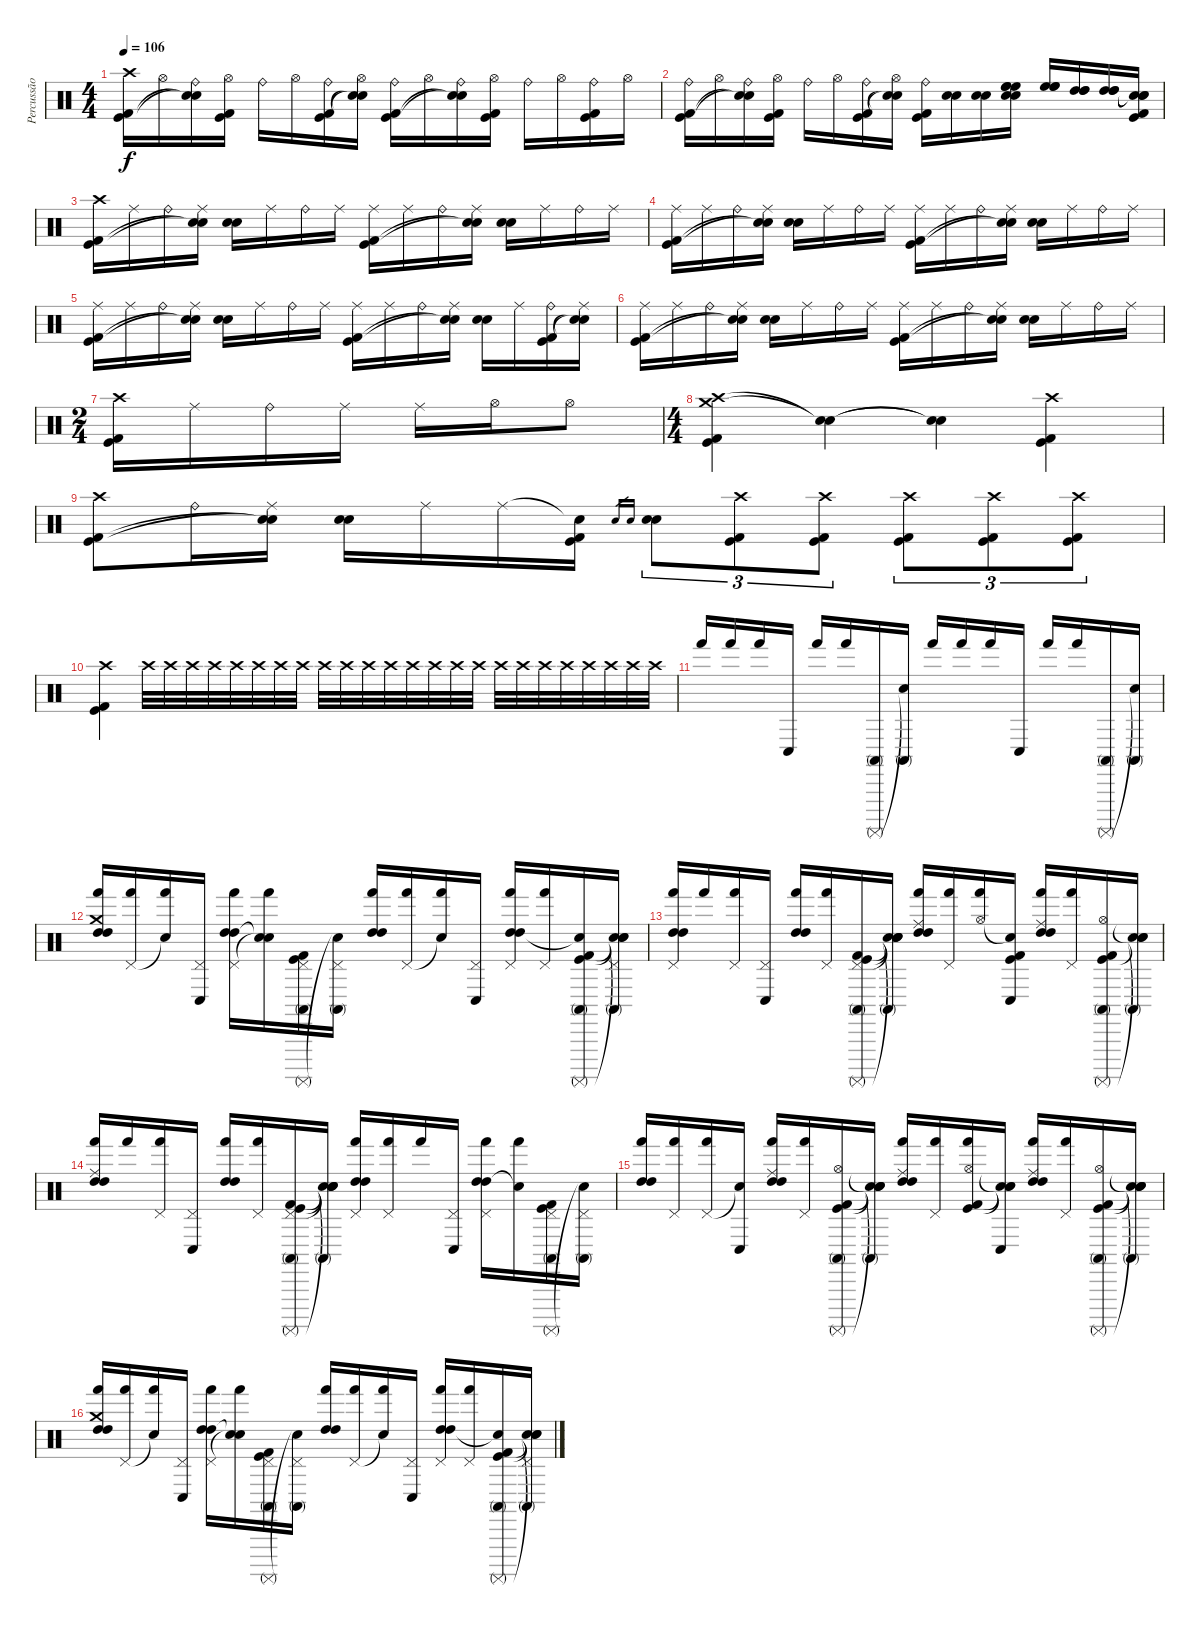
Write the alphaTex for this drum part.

\track ("Percussão" "Percussão") {instrument percussion}
\staff {score}
\articulation defaults
\ts (4 4)
\tempo 106
\clef neutral
\ks c
("Crash high (hit)" "Kick (hit)" "Kick (hit) 2").16{dy f} "Hi-Hat (open)".16 ("Ride (bell)" "Snare (hit)"{t} "Snare (hit)"{t}).16 ("Hi-Hat (open)" "Kick (hit)" "Kick (hit) 2").16 "Ride (bell)".16 "Hi-Hat (open)".16 ("Ride (bell)" "Kick (hit)" "Kick (hit) 2").16 ("Hi-Hat (open)" "Snare (hit)"{t} "Snare (hit)"{t}).16 ("Ride (bell)" "Kick (hit)" "Kick (hit) 2").16 "Hi-Hat (open)".16 ("Ride (bell)" "Snare (hit)"{t} "Snare (hit)"{t}).16 ("Hi-Hat (open)" "Kick (hit)" "Kick (hit) 2").16 "Ride (bell)".16 "Hi-Hat (open)".16 ("Ride (bell)" "Kick (hit) 2" "Kick (hit)").16 "Hi-Hat (open)".16 |
("Ride (bell)" "Kick (hit)" "Kick (hit) 2").16 "Hi-Hat (open)".16 ("Ride (bell)" "Snare (hit)"{t} "Snare (hit)"{t}).16 ("Hi-Hat (open)" "Kick (hit) 2" "Kick (hit)").16 "Ride (bell)".16 "Hi-Hat (open)".16 ("Ride (bell)" "Kick (hit)" "Kick (hit) 2").16 ("Hi-Hat (open)" "Snare (hit)"{t} "Snare (hit)"{t}).16 ("Ride (bell)" "Kick (hit)" "Kick (hit) 2").16 ("Electric Snare (hit)" "Snare (hit) 2").16 ("Electric Snare (hit)" "Snare (hit) 2").16 ("High Floor Tom (hit)" "High Floor Tom (hit)" "High Floor Tom (hit)" "Snare (hit)" "Snare (hit)").16 ("High Floor Tom (hit)" "High Floor Tom (hit)" "High Floor Tom (hit)").16 ("High Tom (hit)" "High Tom (hit)" "High Tom (hit)").16 ("High Tom (hit)" "High Tom (hit)" "High Tom (hit)").16 ("Snare (hit)"{t} "Snare (hit)"{t} "Snare (hit)"{t} "Kick (hit)" "Kick (hit) 2").16 |
("Crash high (hit)" "Kick (hit)" "Kick (hit) 2").16 "Ride (middle)".16 "Ride (bell)".16 ("Ride (middle)" "Snare (hit)"{t} "Snare (hit)"{t}).16 ("Electric Snare (hit)" "Snare (hit) 2").16 "Ride (middle)".16 "Ride (bell)".16 "Ride (middle)".16 ("Ride (middle)" "Kick (hit)" "Kick (hit) 2").16 "Ride (middle)".16 "Ride (bell)".16 ("Ride (middle)" "Snare (hit)"{t} "Snare (hit)"{t}).16 ("Electric Snare (hit)" "Snare (hit) 2").16 "Ride (middle)".16 "Ride (bell)".16 "Ride (middle)".16 |
("Ride (middle)" "Kick (hit)" "Kick (hit) 2").16 "Ride (middle)".16 "Ride (bell)".16 ("Ride (middle)" "Snare (hit)"{t} "Snare (hit)"{t}).16 ("Electric Snare (hit)" "Snare (hit) 2").16 "Ride (middle)".16 "Ride (bell)".16 "Ride (middle)".16 ("Ride (middle)" "Kick (hit)" "Kick (hit) 2").16 "Ride (middle)".16 "Ride (bell)".16 ("Ride (middle)" "Snare (hit)"{t} "Snare (hit)"{t}).16 ("Electric Snare (hit)" "Snare (hit) 2").16 "Ride (middle)".16 "Ride (bell)".16 "Ride (middle)".16 |
("Ride (middle)" "Kick (hit)" "Kick (hit) 2").16 "Ride (middle)".16 "Ride (bell)".16 ("Ride (middle)" "Snare (hit)"{t} "Snare (hit)"{t}).16 ("Electric Snare (hit)" "Snare (hit) 2").16 "Ride (middle)".16 "Ride (bell)".16 "Ride (middle)".16 ("Ride (middle)" "Kick (hit)" "Kick (hit) 2").16 "Ride (middle)".16 "Ride (bell)".16 ("Ride (middle)" "Snare (hit)"{t} "Snare (hit)"{t}).16 ("Electric Snare (hit)" "Snare (hit) 2").16 "Ride (middle)".16 ("Ride (bell)" "Kick (hit)" "Kick (hit) 2").16 ("Ride (middle)" "Snare (hit)"{t} "Snare (hit)"{t}).16 |
("Ride (middle)" "Kick (hit)" "Kick (hit) 2").16 "Ride (middle)".16 "Ride (bell)".16 ("Ride (middle)" "Snare (hit)"{t} "Snare (hit)"{t}).16 ("Electric Snare (hit)" "Snare (hit) 2").16 "Ride (middle)".16 "Ride (bell)".16 "Ride (middle)".16 ("Ride (middle)" "Kick (hit)" "Kick (hit) 2").16 "Ride (middle)".16 "Ride (bell)".16 ("Ride (middle)" "Snare (hit)"{t} "Snare (hit)"{t}).16 ("Electric Snare (hit)" "Snare (hit) 2").16 "Ride (middle)".16 "Ride (bell)".16 "Ride (middle)".16 |
\ts (2 4)
("Crash high (hit)" "Kick (hit)" "Kick (hit) 2").16 "Ride (middle)".16 "Ride (bell)".16 "Ride (middle)".16 "Ride (middle)".16 "Hi-Hat (open)".16 "Hi-Hat (open)".8 |
\ts (4 4)
("Crash high (hit)" "Crash medium (hit)" "Kick (hit)" "Kick (hit) 2").4 ("Snare (hit)"{t} "Snare (hit)"{t}).4 ("Snare (hit)"{t} "Snare (hit)"{t}).4 ("Crash high (hit)" "Kick (hit)" "Kick (hit) 2").4 |
("Crash high (hit)" "Kick (hit)" "Kick (hit) 2").8 "Ride (bell)".16 ("Ride (middle)" "Snare (hit)"{t} "Snare (hit)"{t}).16 ("Electric Snare (hit)" "Snare (hit) 2").16 "Ride (middle)".16 "Ride (middle)".16 ("Snare (hit)"{t} "Kick (hit)" "Kick (hit) 2").16 "Electric Snare (hit)".16{gr} "Snare (hit) 2".16{gr} ("Electric Snare (hit)" "Snare (hit) 2").8{tu (3 2)} ("Crash high (hit)" "Kick (hit)" "Kick (hit) 2").8{tu (3 2)} ("Crash high (hit)" "Kick (hit)" "Kick (hit) 2").8{tu (3 2)} ("Crash high (hit)" "Kick (hit)" "Kick (hit) 2").8{tu (3 2)} ("Crash high (hit)" "Kick (hit)" "Kick (hit) 2").8{tu (3 2)} ("Crash high (hit)" "Kick (hit)" "Kick (hit) 2").8{tu (3 2)} |
("Crash high (hit)" "Kick (hit)" "Kick (hit) 2").4 "Crash high (hit)".32 "Crash high (hit)".32 "Crash high (hit)".32 "Crash high (hit)".32 "Crash high (hit)".32 "Crash high (hit)".32 "Crash high (hit)".32 "Crash high (hit)".32 "Crash high (hit)".32 "Crash high (hit)".32 "Crash high (hit)".32 "Crash high (hit)".32 "Crash high (hit)".32 "Crash high (hit)".32 "Crash high (hit)".32 "Crash high (hit)".32 "Crash high (hit)".32 "Crash high (hit)".32 "Crash high (hit)".32 "Crash high (hit)".32 "Crash high (hit)".32 "Crash high (hit)".32 "Crash high (hit)".32 "Crash high (hit)".32 |
"Hand (hit)".16 "Hand (hit)".16 "Hand (hit)".16 "Conga low (hit)".16 "Hand (hit)".16 "Hand (hit)".16 ("Conga high (mute)" "Surdo (mute)").16 ("Conga high (mute)" "Snare (hit)"{t}).16 "Hand (hit)".16 "Hand (hit)".16 "Hand (hit)".16 "Conga low (hit)".16 "Hand (hit)".16 "Hand (hit)".16 ("Conga high (mute)" "Surdo (mute)").16 ("Conga high (mute)" "Snare (hit)"{t}).16 |
("Hand (hit)" "Crash medium (hit)" "High Tom (hit)" "High Tom (hit)").16 ("Hand (hit)" "Pedal Hi-Hat (hit)").16 ("Hand (hit)" "Snare (hit)"{t}).16 ("Conga low (hit)" "Pedal Hi-Hat (hit)").16 ("Hand (hit)" "Pedal Hi-Hat (hit)" "High Tom (hit)" "High Tom (hit)").16 ("Hand (hit)" "Snare (hit)"{t} "Snare (hit)"{t}).16 ("Conga high (mute)" "Surdo (mute)" "Pedal Hi-Hat (hit)" "Kick (hit)" "Kick (hit) 2").16 ("Conga high (mute)" "Snare (hit)"{t} "Pedal Hi-Hat (hit)").16 ("Hand (hit)" "High Tom (hit)" "High Tom (hit)").16 ("Hand (hit)" "Pedal Hi-Hat (hit)").16 ("Hand (hit)" "Snare (hit)"{t}).16 ("Conga low (hit)" "Pedal Hi-Hat (hit)").16 ("Hand (hit)" "Pedal Hi-Hat (hit)" "High Tom (hit)" "High Tom (hit)").16 ("Hand (hit)" "Pedal Hi-Hat (hit)").16 ("Conga high (mute)" "Surdo (mute)" "Snare (hit)"{t} "Kick (hit)" "Kick (hit) 2").16 ("Conga high (mute)" "Snare (hit)"{t} "Pedal Hi-Hat (hit)" "Snare (hit)"{t} "Snare (hit)"{t}).16 |
("Hand (hit)" "High Tom (hit)" "High Tom (hit)" "Pedal Hi-Hat (hit)").16 "Hand (hit)".16 ("Hand (hit)" "Pedal Hi-Hat (hit)").16 ("Conga low (hit)" "Pedal Hi-Hat (hit)").16 ("Hand (hit)" "High Tom (hit)" "High Tom (hit)").16 ("Hand (hit)" "Pedal Hi-Hat (hit)").16 ("Conga high (mute)" "Surdo (mute)" "Pedal Hi-Hat (hit)" "Kick (hit)" "Kick (hit) 2").16 ("Conga high (mute)" "Snare (hit)"{t} "Snare (hit)"{t} "Snare (hit)"{t} "Snare (hit)"{t}).16 ("Hand (hit)" "High Tom (hit)" "High Tom (hit)" "Ride (middle)").16 ("Hand (hit)" "Pedal Hi-Hat (hit)").16 ("Hand (hit)" "Hi-Hat (open)").16 ("Conga low (hit)" "Snare (hit)"{t} "Kick (hit) 2" "Kick (hit)").16 ("Hand (hit)" "High Tom (hit)" "High Tom (hit)" "Ride (middle)").16 ("Hand (hit)" "Pedal Hi-Hat (hit)").16 ("Conga high (mute)" "Surdo (mute)" "Hi-Hat (open)" "Kick (hit)" "Kick (hit) 2").16 ("Conga high (mute)" "Snare (hit)"{t} "Snare (hit)"{t} "Snare (hit)"{t}).16 |
("Hand (hit)" "High Tom (hit)" "High Tom (hit)" "Ride (middle)").16 "Hand (hit)".16 ("Hand (hit)" "Pedal Hi-Hat (hit)").16 ("Conga low (hit)" "Pedal Hi-Hat (hit)").16 ("Hand (hit)" "High Tom (hit)" "High Tom (hit)").16 ("Hand (hit)" "Pedal Hi-Hat (hit)").16 ("Conga high (mute)" "Surdo (mute)" "Pedal Hi-Hat (hit)" "Kick (hit)" "Kick (hit) 2").16 ("Conga high (mute)" "Snare (hit)"{t} "Snare (hit)"{t} "Snare (hit)"{t} "Snare (hit)"{t}).16 ("Hand (hit)" "High Tom (hit)" "High Tom (hit)" "Pedal Hi-Hat (hit)").16 ("Hand (hit)" "Pedal Hi-Hat (hit)").16 "Hand (hit)".16 ("Conga low (hit)" "Pedal Hi-Hat (hit)").16 ("Hand (hit)" "High Tom (hit)" "High Tom (hit)" "Pedal Hi-Hat (hit)").16 ("Hand (hit)" "Snare (hit)"{t}).16 ("Conga high (mute)" "Surdo (mute)" "Pedal Hi-Hat (hit)" "Kick (hit)" "Kick (hit) 2").16 ("Conga high (mute)" "Snare (hit)"{t} "Pedal Hi-Hat (hit)").16 |
("Hand (hit)" "High Tom (hit)" "High Tom (hit)").16 ("Hand (hit)" "Pedal Hi-Hat (hit)").16 ("Hand (hit)" "Pedal Hi-Hat (hit)").16 ("Conga low (hit)" "Snare (hit)"{t}).16 ("Hand (hit)" "High Tom (hit)" "High Tom (hit)" "Ride (middle)").16 ("Hand (hit)" "Pedal Hi-Hat (hit)").16 ("Conga high (mute)" "Surdo (mute)" "Hi-Hat (open)" "Kick (hit)" "Kick (hit) 2").16 ("Conga high (mute)" "Snare (hit)"{t} "Snare (hit)"{t} "Snare (hit)"{t} "Snare (hit)"{t}).16 ("Hand (hit)" "High Tom (hit)" "High Tom (hit)" "Ride (middle)").16 ("Hand (hit)" "Pedal Hi-Hat (hit)").16 ("Hand (hit)" "Hi-Hat (open)" "Kick (hit)" "Kick (hit) 2").16 ("Conga low (hit)" "Snare (hit)"{t} "Snare (hit)"{t} "Snare (hit)"{t}).16 ("Hand (hit)" "High Tom (hit)" "High Tom (hit)" "Ride (middle)").16 ("Hand (hit)" "Pedal Hi-Hat (hit)").16 ("Conga high (mute)" "Surdo (mute)" "Hi-Hat (open)" "Kick (hit)" "Kick (hit) 2").16 ("Conga high (mute)" "Snare (hit)"{t} "Snare (hit)"{t} "Snare (hit)"{t} "Snare (hit)"{t}).16 |
("Hand (hit)" "Crash medium (hit)" "High Tom (hit)" "High Tom (hit)").16 ("Hand (hit)" "Pedal Hi-Hat (hit)").16 ("Hand (hit)" "Snare (hit)"{t}).16 ("Conga low (hit)" "Pedal Hi-Hat (hit)").16 ("Hand (hit)" "Pedal Hi-Hat (hit)" "High Tom (hit)" "High Tom (hit)").16 ("Hand (hit)" "Snare (hit)"{t} "Snare (hit)"{t}).16 ("Conga high (mute)" "Surdo (mute)" "Pedal Hi-Hat (hit)" "Kick (hit)" "Kick (hit) 2").16 ("Conga high (mute)" "Snare (hit)"{t} "Pedal Hi-Hat (hit)").16 ("Hand (hit)" "High Tom (hit)" "High Tom (hit)").16 ("Hand (hit)" "Pedal Hi-Hat (hit)").16 ("Hand (hit)" "Snare (hit)"{t}).16 ("Conga low (hit)" "Pedal Hi-Hat (hit)").16 ("Hand (hit)" "Pedal Hi-Hat (hit)" "High Tom (hit)" "High Tom (hit)").16 ("Hand (hit)" "Pedal Hi-Hat (hit)").16 ("Conga high (mute)" "Surdo (mute)" "Snare (hit)"{t} "Kick (hit)" "Kick (hit) 2").16 ("Conga high (mute)" "Snare (hit)"{t} "Pedal Hi-Hat (hit)" "Snare (hit)"{t} "Snare (hit)"{t}).16
